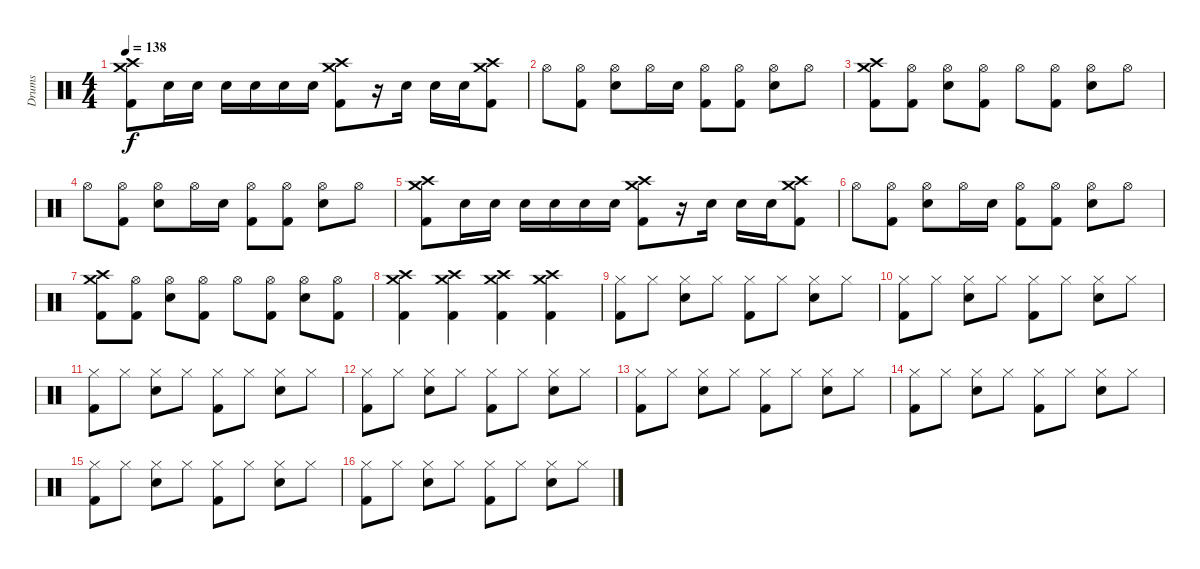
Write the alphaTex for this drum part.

\track ("Drums" "Drums") {instrument percussion}
\staff {score}
\articulation defaults
\ts (4 4)
\tempo 138
\clef neutral
\ks c
("Crash medium (hit)" "Crash high (hit)" "Kick (hit) 2").8{dy f} "Electric Snare (hit)".16 "Electric Snare (hit)".16 "Electric Snare (hit)".16 "Electric Snare (hit)".16 "Electric Snare (hit)".16 "Electric Snare (hit)".16 ("Crash medium (hit)" "Crash high (hit)" "Kick (hit) 2").8 r.16 "Electric Snare (hit)".16 "Electric Snare (hit)".16 "Electric Snare (hit)".16 ("Crash medium (hit)" "Crash high (hit)" "Kick (hit) 2").8 |
"Hi-Hat (open)".8 ("Hi-Hat (open)" "Kick (hit) 2").8 ("Hi-Hat (open)" "Electric Snare (hit)").8 "Hi-Hat (open)".16 "Electric Snare (hit)".16 ("Hi-Hat (open)" "Kick (hit) 2").8 ("Hi-Hat (open)" "Kick (hit) 2").8 ("Hi-Hat (open)" "Electric Snare (hit)").8 "Hi-Hat (open)".8 |
("Crash medium (hit)" "Crash high (hit)" "Kick (hit) 2").8 ("Hi-Hat (open)" "Kick (hit) 2").8 ("Hi-Hat (open)" "Electric Snare (hit)").8 ("Hi-Hat (open)" "Kick (hit) 2").8 "Hi-Hat (open)".8 ("Hi-Hat (open)" "Kick (hit) 2").8 ("Hi-Hat (open)" "Electric Snare (hit)").8 "Hi-Hat (open)".8 |
"Hi-Hat (open)".8 ("Hi-Hat (open)" "Kick (hit) 2").8 ("Hi-Hat (open)" "Electric Snare (hit)").8 "Hi-Hat (open)".16 "Electric Snare (hit)".16 ("Hi-Hat (open)" "Kick (hit) 2").8 ("Hi-Hat (open)" "Kick (hit) 2").8 ("Hi-Hat (open)" "Electric Snare (hit)").8 "Hi-Hat (open)".8 |
("Crash medium (hit)" "Crash high (hit)" "Kick (hit) 2").8 "Electric Snare (hit)".16 "Electric Snare (hit)".16 "Electric Snare (hit)".16 "Electric Snare (hit)".16 "Electric Snare (hit)".16 "Electric Snare (hit)".16 ("Crash medium (hit)" "Crash high (hit)" "Kick (hit) 2").8 r.16 "Electric Snare (hit)".16 "Electric Snare (hit)".16 "Electric Snare (hit)".16 ("Crash medium (hit)" "Crash high (hit)" "Kick (hit) 2").8 |
"Hi-Hat (open)".8 ("Hi-Hat (open)" "Kick (hit) 2").8 ("Hi-Hat (open)" "Electric Snare (hit)").8 "Hi-Hat (open)".16 "Electric Snare (hit)".16 ("Hi-Hat (open)" "Kick (hit) 2").8 ("Hi-Hat (open)" "Kick (hit) 2").8 ("Hi-Hat (open)" "Electric Snare (hit)").8 "Hi-Hat (open)".8 |
("Crash medium (hit)" "Crash high (hit)" "Kick (hit) 2").8 ("Hi-Hat (open)" "Kick (hit) 2").8 ("Hi-Hat (open)" "Electric Snare (hit)").8 ("Hi-Hat (open)" "Kick (hit) 2").8 "Hi-Hat (open)".8 ("Hi-Hat (open)" "Kick (hit) 2").8 ("Hi-Hat (open)" "Electric Snare (hit)").8 ("Hi-Hat (open)" "Kick (hit) 2").8 |
("Crash medium (hit)" "Crash high (hit)" "Kick (hit) 2").4 ("Crash medium (hit)" "Crash high (hit)" "Kick (hit) 2").4 ("Crash medium (hit)" "Crash high (hit)" "Kick (hit) 2").4 ("Crash medium (hit)" "Crash high (hit)" "Kick (hit) 2").4 |
("Hi-Hat (closed)" "Kick (hit) 2").8 "Hi-Hat (closed)".8 ("Hi-Hat (closed)" "Electric Snare (hit)").8 "Hi-Hat (closed)".8 ("Hi-Hat (closed)" "Kick (hit) 2").8 "Hi-Hat (closed)".8 ("Hi-Hat (closed)" "Electric Snare (hit)").8 "Hi-Hat (closed)".8 |
("Hi-Hat (closed)" "Kick (hit) 2").8 "Hi-Hat (closed)".8 ("Hi-Hat (closed)" "Electric Snare (hit)").8 "Hi-Hat (closed)".8 ("Hi-Hat (closed)" "Kick (hit) 2").8 "Hi-Hat (closed)".8 ("Hi-Hat (closed)" "Electric Snare (hit)").8 "Hi-Hat (closed)".8 |
("Hi-Hat (closed)" "Kick (hit) 2").8 "Hi-Hat (closed)".8 ("Hi-Hat (closed)" "Electric Snare (hit)").8 "Hi-Hat (closed)".8 ("Hi-Hat (closed)" "Kick (hit) 2").8 "Hi-Hat (closed)".8 ("Hi-Hat (closed)" "Electric Snare (hit)").8 "Hi-Hat (closed)".8 |
("Hi-Hat (closed)" "Kick (hit) 2").8 "Hi-Hat (closed)".8 ("Hi-Hat (closed)" "Electric Snare (hit)").8 "Hi-Hat (closed)".8 ("Hi-Hat (closed)" "Kick (hit) 2").8 "Hi-Hat (closed)".8 ("Hi-Hat (closed)" "Electric Snare (hit)").8 "Hi-Hat (closed)".8 |
("Hi-Hat (closed)" "Kick (hit) 2").8 "Hi-Hat (closed)".8 ("Hi-Hat (closed)" "Electric Snare (hit)").8 "Hi-Hat (closed)".8 ("Hi-Hat (closed)" "Kick (hit) 2").8 "Hi-Hat (closed)".8 ("Hi-Hat (closed)" "Electric Snare (hit)").8 "Hi-Hat (closed)".8 |
("Hi-Hat (closed)" "Kick (hit) 2").8 "Hi-Hat (closed)".8 ("Hi-Hat (closed)" "Electric Snare (hit)").8 "Hi-Hat (closed)".8 ("Hi-Hat (closed)" "Kick (hit) 2").8 "Hi-Hat (closed)".8 ("Hi-Hat (closed)" "Electric Snare (hit)").8 "Hi-Hat (closed)".8 |
("Hi-Hat (closed)" "Kick (hit) 2").8 "Hi-Hat (closed)".8 ("Hi-Hat (closed)" "Electric Snare (hit)").8 "Hi-Hat (closed)".8 ("Hi-Hat (closed)" "Kick (hit) 2").8 "Hi-Hat (closed)".8 ("Hi-Hat (closed)" "Electric Snare (hit)").8 "Hi-Hat (closed)".8 |
("Hi-Hat (closed)" "Kick (hit) 2").8 "Hi-Hat (closed)".8 ("Hi-Hat (closed)" "Electric Snare (hit)").8 "Hi-Hat (closed)".8 ("Hi-Hat (closed)" "Kick (hit) 2").8 "Hi-Hat (closed)".8 ("Hi-Hat (closed)" "Electric Snare (hit)").8 "Hi-Hat (closed)".8
